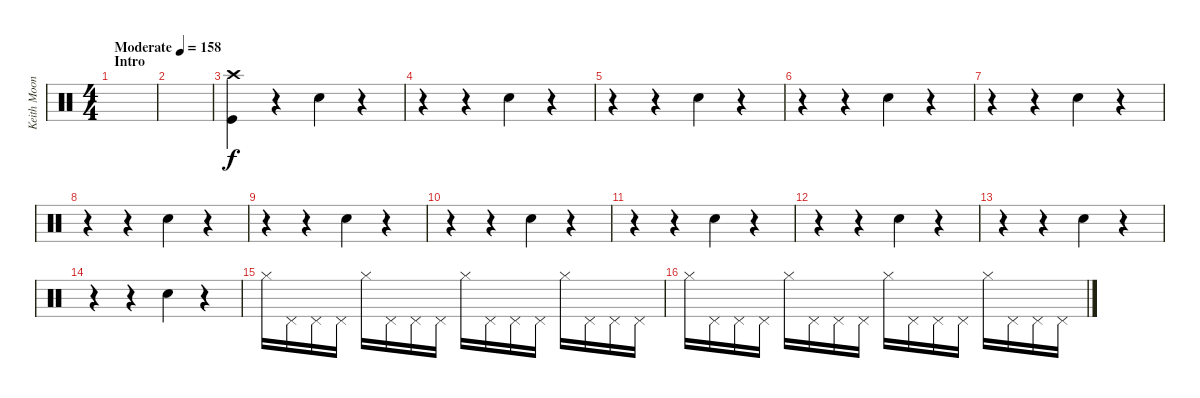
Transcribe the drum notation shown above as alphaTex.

\track ("Keith Moon" "Keith Moon") {instrument percussion}
\staff {score}
\articulation defaults
\ts (4 4)
\section ("" "Intro")
\tempo (158 "Moderate")
\clef neutral
\ks c
|
|
("Crash high (hit)" "Kick (hit)").4 r.4 "Hand Clap (hit)".4 r.4 |
r.4 r.4 "Hand Clap (hit)".4 r.4 |
r.4 r.4 "Hand Clap (hit)".4 r.4 |
r.4 r.4 "Hand Clap (hit)".4 r.4 |
r.4 r.4 "Hand Clap (hit)".4 r.4 |
r.4 r.4 "Hand Clap (hit)".4 r.4 |
r.4 r.4 "Hand Clap (hit)".4 r.4 |
r.4 r.4 "Hand Clap (hit)".4 r.4 |
r.4 r.4 "Hand Clap (hit)".4 r.4 |
r.4 r.4 "Hand Clap (hit)".4 r.4 |
r.4 r.4 "Hand Clap (hit)".4 r.4 |
r.4 r.4 "Hand Clap (hit)".4 r.4 |
"Hi-Hat (closed)".16 "Pedal Hi-Hat (hit)".16 "Pedal Hi-Hat (hit)".16 "Pedal Hi-Hat (hit)".16 "Hi-Hat (closed)".16 "Pedal Hi-Hat (hit)".16 "Pedal Hi-Hat (hit)".16 "Pedal Hi-Hat (hit)".16 "Hi-Hat (closed)".16 "Pedal Hi-Hat (hit)".16 "Pedal Hi-Hat (hit)".16 "Pedal Hi-Hat (hit)".16 "Hi-Hat (closed)".16 "Pedal Hi-Hat (hit)".16 "Pedal Hi-Hat (hit)".16 "Pedal Hi-Hat (hit)".16 |
"Hi-Hat (closed)".16 "Pedal Hi-Hat (hit)".16 "Pedal Hi-Hat (hit)".16 "Pedal Hi-Hat (hit)".16 "Hi-Hat (closed)".16 "Pedal Hi-Hat (hit)".16 "Pedal Hi-Hat (hit)".16 "Pedal Hi-Hat (hit)".16 "Hi-Hat (closed)".16 "Pedal Hi-Hat (hit)".16 "Pedal Hi-Hat (hit)".16 "Pedal Hi-Hat (hit)".16 "Hi-Hat (closed)".16 "Pedal Hi-Hat (hit)".16 "Pedal Hi-Hat (hit)".16 "Pedal Hi-Hat (hit)".16
